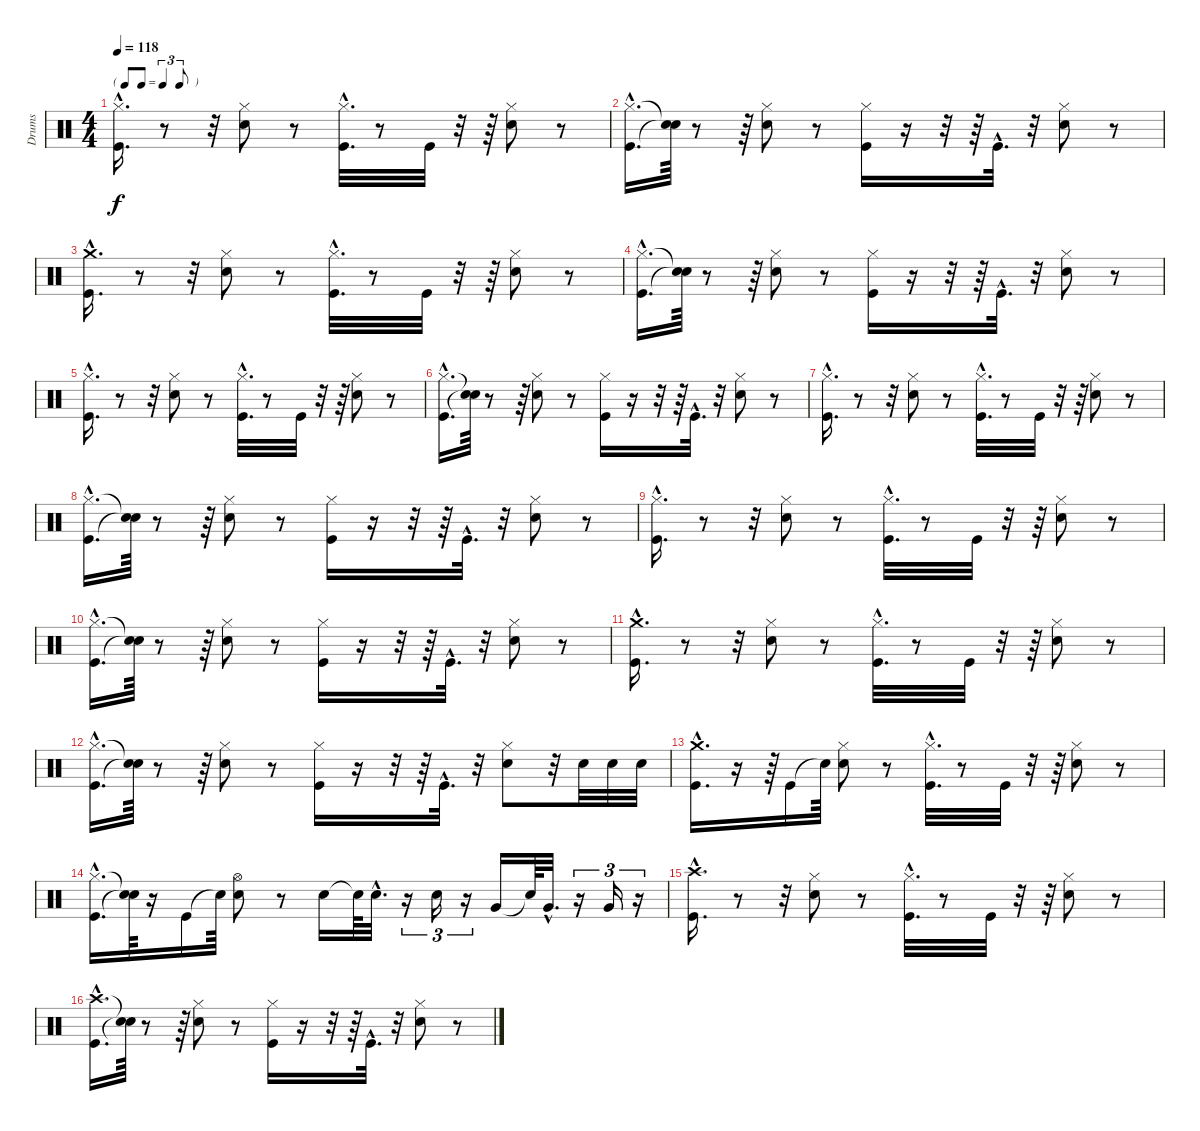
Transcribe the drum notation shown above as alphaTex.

\track ("Drums" "Drums") {instrument percussion}
\staff {score}
\articulation defaults
\ts (4 4)
\tf triplet8th
\tempo 118
\clef neutral
\ks c
("Hi-Hat (closed)"{hac} "Kick (hit)"{hac}).16{d dy f} r.8 r.32 ("Hi-Hat (closed)" "Snare (hit) 2").8 r.8 ("Hi-Hat (closed)"{hac} "Kick (hit)"{hac}).32{d} r.8 "Kick (hit)".32 r.32 r.64 ("Hi-Hat (closed)" "Snare (hit) 2").8 r.8 |
("Kick (hit)"{hac} "Hi-Hat (closed)"{hac}).16{d} ("Snare (hit)"{t} "Snare (hit)"{t}).64 r.8 r.64 ("Snare (hit) 2" "Hi-Hat (closed)").8 r.8 ("Kick (hit)" "Hi-Hat (closed)").16 r.16 r.32 r.64 "Kick (hit)"{hac}.32{d} r.32 ("Snare (hit) 2" "Hi-Hat (closed)").8 r.8 |
("Kick (hit)"{hac} "Crash medium (hit)"{hac}).16{d} r.8 r.32 ("Hi-Hat (closed)" "Snare (hit) 2").8 r.8 ("Hi-Hat (closed)"{hac} "Kick (hit)"{hac}).32{d} r.8 "Kick (hit)".32 r.32 r.64 ("Snare (hit) 2" "Hi-Hat (closed)").8 r.8 |
("Kick (hit)"{hac} "Hi-Hat (closed)"{hac}).16{d} ("Snare (hit)"{t} "Snare (hit)"{t}).64 r.8 r.64 ("Snare (hit) 2" "Hi-Hat (closed)").8 r.8 ("Hi-Hat (closed)" "Kick (hit)").16 r.16 r.32 r.64 "Kick (hit)"{hac}.32{d} r.32 ("Snare (hit) 2" "Hi-Hat (closed)").8 r.8 |
("Kick (hit)"{hac} "Hi-Hat (closed)"{hac}).16{d} r.8 r.32 ("Snare (hit) 2" "Hi-Hat (closed)").8 r.8 ("Kick (hit)"{hac} "Hi-Hat (closed)"{hac}).32{d} r.8 "Kick (hit)".32 r.32 r.64 ("Snare (hit) 2" "Hi-Hat (closed)").8 r.8 |
("Hi-Hat (closed)"{hac} "Kick (hit)"{hac}).16{d} ("Snare (hit)"{t} "Snare (hit)"{t}).64 r.8 r.64 ("Hi-Hat (closed)" "Snare (hit) 2").8 r.8 ("Kick (hit)" "Hi-Hat (closed)").16 r.16 r.32 r.64 "Kick (hit)"{hac}.32{d} r.32 ("Hi-Hat (closed)" "Snare (hit) 2").8 r.8 |
("Hi-Hat (closed)"{hac} "Kick (hit)"{hac}).16{d} r.8 r.32 ("Snare (hit) 2" "Hi-Hat (closed)").8 r.8 ("Kick (hit)"{hac} "Hi-Hat (closed)"{hac}).32{d} r.8 "Kick (hit)".32 r.32 r.64 ("Hi-Hat (closed)" "Snare (hit) 2").8 r.8 |
("Kick (hit)"{hac} "Hi-Hat (closed)"{hac}).16{d} ("Snare (hit)"{t} "Snare (hit)"{t}).64 r.8 r.64 ("Snare (hit) 2" "Hi-Hat (closed)").8 r.8 ("Kick (hit)" "Hi-Hat (closed)").16 r.16 r.32 r.64 "Kick (hit)"{hac}.32{d} r.32 ("Hi-Hat (closed)" "Snare (hit) 2").8 r.8 |
("Hi-Hat (closed)"{hac} "Kick (hit)"{hac}).16{d} r.8 r.32 ("Snare (hit) 2" "Hi-Hat (closed)").8 r.8 ("Kick (hit)"{hac} "Hi-Hat (closed)"{hac}).32{d} r.8 "Kick (hit)".32 r.32 r.64 ("Snare (hit) 2" "Hi-Hat (closed)").8 r.8 |
("Kick (hit)"{hac} "Hi-Hat (closed)"{hac}).16{d} ("Snare (hit)"{t} "Snare (hit)"{t}).64 r.8 r.64 ("Hi-Hat (closed)" "Snare (hit) 2").8 r.8 ("Hi-Hat (closed)" "Kick (hit)").16 r.16 r.32 r.64 "Kick (hit)"{hac}.32{d} r.32 ("Snare (hit) 2" "Hi-Hat (closed)").8 r.8 |
("Kick (hit)"{hac} "Crash medium (hit)"{hac}).16{d} r.8 r.32 ("Hi-Hat (closed)" "Snare (hit) 2").8 r.8 ("Kick (hit)"{hac} "Hi-Hat (closed)"{hac}).32{d} r.8 "Kick (hit)".32 r.32 r.64 ("Snare (hit) 2" "Hi-Hat (closed)").8 r.8 |
("Hi-Hat (closed)"{hac} "Kick (hit)"{hac}).16{d} ("Snare (hit)"{t} "Snare (hit)"{t}).64 r.8 r.64 ("Snare (hit) 2" "Hi-Hat (closed)").8 r.8 ("Kick (hit)" "Hi-Hat (closed)").16 r.16 r.32 r.64 "Kick (hit)"{hac}.32{d} r.32 ("Snare (hit) 2" "Hi-Hat (closed)").8 r.32 "Snare (hit) 2".32 "Snare (hit) 2".32 "Snare (hit) 2".32 |
("Kick (hit)"{hac} "Crash medium (hit)"{hac}).16{d} r.16 r.64 "Kick (hit)".16 "Snare (hit)"{t}.64 ("Snare (hit) 2" "Hi-Hat (closed)").8 r.8 ("Kick (hit)"{hac} "Hi-Hat (closed)"{hac}).32{d} r.8 "Kick (hit)".32 r.32 r.64 ("Hi-Hat (closed)" "Snare (hit) 2").8 r.8 |
("Hi-Hat (closed)"{hac} "Kick (hit)"{hac}).16{d} ("Snare (hit)"{t} "Snare (hit)"{t}).64 r.16 "Kick (hit)".16 "Snare (hit)"{t}.64 ("Hi-Hat (open)" "Snare (hit) 2").8 r.8 "Snare (hit) 2".16 "Snare (hit)"{t}.64 "Snare (hit) 2"{hac}.32{d} r.16{tu (3 2)} "Snare (hit) 2".16{tu (3 2)} r.16{tu (3 2)} "Very Low Tom (hit)".16 "Snare (hit)"{t}.64 "Very Low Tom (hit)"{hac}.32{d} r.16{tu (3 2)} "Very Low Tom (hit)".16{tu (3 2)} r.16{tu (3 2)} |
("Crash high (hit)"{hac} "Kick (hit)"{hac}).16{d} r.8 r.32 ("Hi-Hat (closed)" "Snare (hit) 2").8 r.8 ("Hi-Hat (closed)"{hac} "Kick (hit)"{hac}).32{d} r.8 "Kick (hit)".32 r.32 r.64 ("Hi-Hat (closed)" "Snare (hit) 2").8 r.8 |
("Crash high (hit)"{hac} "Kick (hit)"{hac}).16{d} ("Snare (hit)"{t} "Snare (hit)"{t}).64 r.8 r.64 ("Snare (hit) 2" "Hi-Hat (closed)").8 r.8 ("Hi-Hat (closed)" "Kick (hit)").16 r.16 r.32 r.64 "Kick (hit)"{hac}.32{d} r.32 ("Hi-Hat (closed)" "Snare (hit) 2").8 r.8
